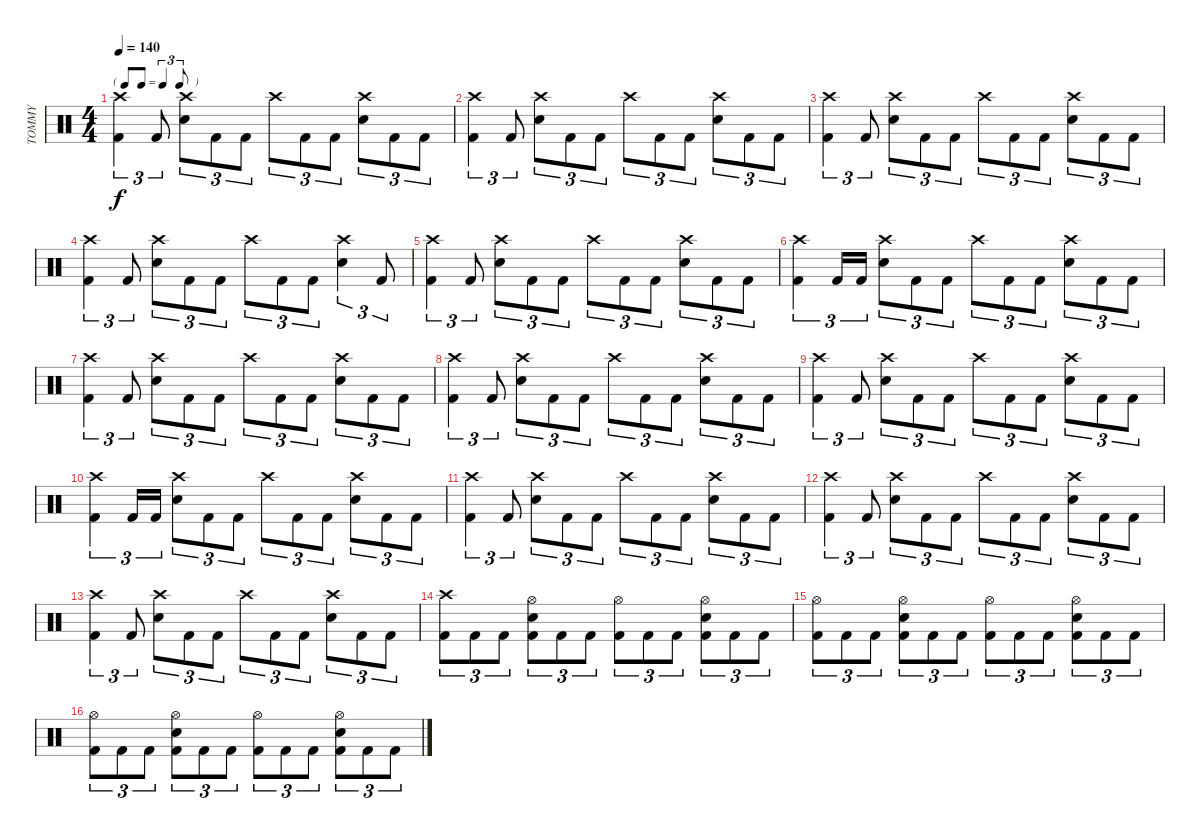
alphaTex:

\track ("TOMMY" "TOMMY") {instrument percussion}
\staff {score}
\articulation defaults
\ts (4 4)
\tf triplet8th
\tempo 140
\clef neutral
\ks c
("Kick (hit) 2" "Crash high (hit)").4{tu (3 2) dy f} "Kick (hit) 2".8{tu (3 2)} ("Snare (hit) 2" "Crash high (hit)").8{tu (3 2)} "Kick (hit) 2".8{tu (3 2)} "Kick (hit) 2".8{tu (3 2)} "Crash high (hit)".8{tu (3 2)} "Kick (hit) 2".8{tu (3 2)} "Kick (hit) 2".8{tu (3 2)} ("Snare (hit) 2" "Crash high (hit)").8{tu (3 2)} "Kick (hit) 2".8{tu (3 2)} "Kick (hit) 2".8{tu (3 2)} |
("Kick (hit) 2" "Crash high (hit)").4{tu (3 2)} "Kick (hit) 2".8{tu (3 2)} ("Snare (hit) 2" "Crash high (hit)").8{tu (3 2)} "Kick (hit) 2".8{tu (3 2)} "Kick (hit) 2".8{tu (3 2)} "Crash high (hit)".8{tu (3 2)} "Kick (hit) 2".8{tu (3 2)} "Kick (hit) 2".8{tu (3 2)} ("Snare (hit) 2" "Crash high (hit)").8{tu (3 2)} "Kick (hit) 2".8{tu (3 2)} "Kick (hit) 2".8{tu (3 2)} |
("Kick (hit) 2" "Crash high (hit)").4{tu (3 2)} "Kick (hit) 2".8{tu (3 2)} ("Snare (hit) 2" "Crash high (hit)").8{tu (3 2)} "Kick (hit) 2".8{tu (3 2)} "Kick (hit) 2".8{tu (3 2)} "Crash high (hit)".8{tu (3 2)} "Kick (hit) 2".8{tu (3 2)} "Kick (hit) 2".8{tu (3 2)} ("Snare (hit) 2" "Crash high (hit)").8{tu (3 2)} "Kick (hit) 2".8{tu (3 2)} "Kick (hit) 2".8{tu (3 2)} |
("Kick (hit) 2" "Crash high (hit)").4{tu (3 2)} "Kick (hit) 2".8{tu (3 2)} ("Snare (hit) 2" "Crash high (hit)").8{tu (3 2)} "Kick (hit) 2".8{tu (3 2)} "Kick (hit) 2".8{tu (3 2)} "Crash high (hit)".8{tu (3 2)} "Kick (hit) 2".8{tu (3 2)} "Kick (hit) 2".8{tu (3 2)} ("Snare (hit) 2" "Crash high (hit)").4{tu (3 2)} "Kick (hit) 2".8{tu (3 2)} |
("Kick (hit) 2" "Crash high (hit)").4{tu (3 2)} "Kick (hit) 2".8{tu (3 2)} ("Snare (hit) 2" "Crash high (hit)").8{tu (3 2)} "Kick (hit) 2".8{tu (3 2)} "Kick (hit) 2".8{tu (3 2)} "Crash high (hit)".8{tu (3 2)} "Kick (hit) 2".8{tu (3 2)} "Kick (hit) 2".8{tu (3 2)} ("Snare (hit) 2" "Crash high (hit)").8{tu (3 2)} "Kick (hit) 2".8{tu (3 2)} "Kick (hit) 2".8{tu (3 2)} |
("Kick (hit) 2" "Crash high (hit)").4{tu (3 2)} "Kick (hit) 2".16{tu (3 2)} "Kick (hit) 2".16{tu (3 2)} ("Snare (hit) 2" "Crash high (hit)").8{tu (3 2)} "Kick (hit) 2".8{tu (3 2)} "Kick (hit) 2".8{tu (3 2)} "Crash high (hit)".8{tu (3 2)} "Kick (hit) 2".8{tu (3 2)} "Kick (hit) 2".8{tu (3 2)} ("Snare (hit) 2" "Crash high (hit)").8{tu (3 2)} "Kick (hit) 2".8{tu (3 2)} "Kick (hit) 2".8{tu (3 2)} |
("Kick (hit) 2" "Crash high (hit)").4{tu (3 2)} "Kick (hit) 2".8{tu (3 2)} ("Snare (hit) 2" "Crash high (hit)").8{tu (3 2)} "Kick (hit) 2".8{tu (3 2)} "Kick (hit) 2".8{tu (3 2)} "Crash high (hit)".8{tu (3 2)} "Kick (hit) 2".8{tu (3 2)} "Kick (hit) 2".8{tu (3 2)} ("Snare (hit) 2" "Crash high (hit)").8{tu (3 2)} "Kick (hit) 2".8{tu (3 2)} "Kick (hit) 2".8{tu (3 2)} |
("Kick (hit) 2" "Crash high (hit)").4{tu (3 2)} "Kick (hit) 2".8{tu (3 2)} ("Snare (hit) 2" "Crash high (hit)").8{tu (3 2)} "Kick (hit) 2".8{tu (3 2)} "Kick (hit) 2".8{tu (3 2)} "Crash high (hit)".8{tu (3 2)} "Kick (hit) 2".8{tu (3 2)} "Kick (hit) 2".8{tu (3 2)} ("Snare (hit) 2" "Crash high (hit)").8{tu (3 2)} "Kick (hit) 2".8{tu (3 2)} "Kick (hit) 2".8{tu (3 2)} |
("Kick (hit) 2" "Crash high (hit)").4{tu (3 2)} "Kick (hit) 2".8{tu (3 2)} ("Snare (hit) 2" "Crash high (hit)").8{tu (3 2)} "Kick (hit) 2".8{tu (3 2)} "Kick (hit) 2".8{tu (3 2)} "Crash high (hit)".8{tu (3 2)} "Kick (hit) 2".8{tu (3 2)} "Kick (hit) 2".8{tu (3 2)} ("Snare (hit) 2" "Crash high (hit)").8{tu (3 2)} "Kick (hit) 2".8{tu (3 2)} "Kick (hit) 2".8{tu (3 2)} |
("Kick (hit) 2" "Crash high (hit)").4{tu (3 2)} "Kick (hit) 2".16{tu (3 2)} "Kick (hit) 2".16{tu (3 2)} ("Snare (hit) 2" "Crash high (hit)").8{tu (3 2)} "Kick (hit) 2".8{tu (3 2)} "Kick (hit) 2".8{tu (3 2)} "Crash high (hit)".8{tu (3 2)} "Kick (hit) 2".8{tu (3 2)} "Kick (hit) 2".8{tu (3 2)} ("Snare (hit) 2" "Crash high (hit)").8{tu (3 2)} "Kick (hit) 2".8{tu (3 2)} "Kick (hit) 2".8{tu (3 2)} |
("Kick (hit) 2" "Crash high (hit)").4{tu (3 2)} "Kick (hit) 2".8{tu (3 2)} ("Snare (hit) 2" "Crash high (hit)").8{tu (3 2)} "Kick (hit) 2".8{tu (3 2)} "Kick (hit) 2".8{tu (3 2)} "Crash high (hit)".8{tu (3 2)} "Kick (hit) 2".8{tu (3 2)} "Kick (hit) 2".8{tu (3 2)} ("Snare (hit) 2" "Crash high (hit)").8{tu (3 2)} "Kick (hit) 2".8{tu (3 2)} "Kick (hit) 2".8{tu (3 2)} |
("Kick (hit) 2" "Crash high (hit)").4{tu (3 2)} "Kick (hit) 2".8{tu (3 2)} ("Snare (hit) 2" "Crash high (hit)").8{tu (3 2)} "Kick (hit) 2".8{tu (3 2)} "Kick (hit) 2".8{tu (3 2)} "Crash high (hit)".8{tu (3 2)} "Kick (hit) 2".8{tu (3 2)} "Kick (hit) 2".8{tu (3 2)} ("Snare (hit) 2" "Crash high (hit)").8{tu (3 2)} "Kick (hit) 2".8{tu (3 2)} "Kick (hit) 2".8{tu (3 2)} |
("Kick (hit) 2" "Crash high (hit)").4{tu (3 2)} "Kick (hit) 2".8{tu (3 2)} ("Snare (hit) 2" "Crash high (hit)").8{tu (3 2)} "Kick (hit) 2".8{tu (3 2)} "Kick (hit) 2".8{tu (3 2)} "Crash high (hit)".8{tu (3 2)} "Kick (hit) 2".8{tu (3 2)} "Kick (hit) 2".8{tu (3 2)} ("Snare (hit) 2" "Crash high (hit)").8{tu (3 2)} "Kick (hit) 2".8{tu (3 2)} "Kick (hit) 2".8{tu (3 2)} |
("Kick (hit) 2" "Crash high (hit)").8{tu (3 2)} "Kick (hit) 2".8{tu (3 2)} "Kick (hit) 2".8{tu (3 2)} ("Snare (hit) 2" "Kick (hit) 2" "Hi-Hat (open)").8{tu (3 2)} "Kick (hit) 2".8{tu (3 2)} "Kick (hit) 2".8{tu (3 2)} ("Kick (hit) 2" "Hi-Hat (open)").8{tu (3 2)} "Kick (hit) 2".8{tu (3 2)} "Kick (hit) 2".8{tu (3 2)} ("Snare (hit) 2" "Kick (hit) 2" "Hi-Hat (open)").8{tu (3 2)} "Kick (hit) 2".8{tu (3 2)} "Kick (hit) 2".8{tu (3 2)} |
("Kick (hit) 2" "Hi-Hat (open)").8{tu (3 2)} "Kick (hit) 2".8{tu (3 2)} "Kick (hit) 2".8{tu (3 2)} ("Snare (hit) 2" "Kick (hit) 2" "Hi-Hat (open)").8{tu (3 2)} "Kick (hit) 2".8{tu (3 2)} "Kick (hit) 2".8{tu (3 2)} ("Kick (hit) 2" "Hi-Hat (open)").8{tu (3 2)} "Kick (hit) 2".8{tu (3 2)} "Kick (hit) 2".8{tu (3 2)} ("Snare (hit) 2" "Kick (hit) 2" "Hi-Hat (open)").8{tu (3 2)} "Kick (hit) 2".8{tu (3 2)} "Kick (hit) 2".8{tu (3 2)} |
("Kick (hit) 2" "Hi-Hat (open)").8{tu (3 2)} "Kick (hit) 2".8{tu (3 2)} "Kick (hit) 2".8{tu (3 2)} ("Snare (hit) 2" "Kick (hit) 2" "Hi-Hat (open)").8{tu (3 2)} "Kick (hit) 2".8{tu (3 2)} "Kick (hit) 2".8{tu (3 2)} ("Kick (hit) 2" "Hi-Hat (open)").8{tu (3 2)} "Kick (hit) 2".8{tu (3 2)} "Kick (hit) 2".8{tu (3 2)} ("Snare (hit) 2" "Kick (hit) 2" "Hi-Hat (open)").8{tu (3 2)} "Kick (hit) 2".8{tu (3 2)} "Kick (hit) 2".8{tu (3 2)}
